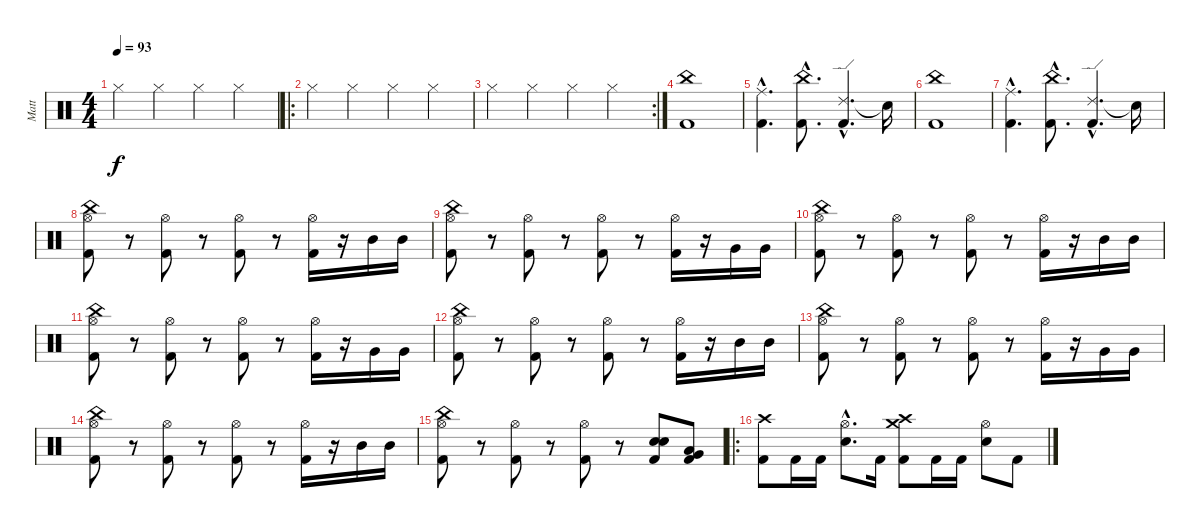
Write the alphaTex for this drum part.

\track ("Matt" "Matt") {instrument percussion}
\staff {score}
\articulation defaults
\ts (4 4)
\tempo 93
\clef neutral
\ks c "Hi-Hat (closed)".4{dy f} "Hi-Hat (closed)".4 "Hi-Hat (closed)".4 "Hi-Hat (closed)".4
|
\ro "Hi-Hat (closed)".4 "Hi-Hat (closed)".4 "Hi-Hat (closed)".4 "Hi-Hat (closed)".4
|
\rc 2 "Hi-Hat (closed)".4 "Hi-Hat (closed)".4 "Hi-Hat (closed)".4 "Hi-Hat (closed)".4
|
("China (hit)" "Kick (hit) 2").1 |
("Ride (middle)"{hac} "Kick (hit) 2"{hac}).4{d} ("China (hit)"{hac} "Kick (hit) 2"{hac}).8{d} ("Ride (edge) 2"{hac} "Kick (hit) 2"{hac}).4{d} "Snare (hit)"{t}.16 |
("China (hit)" "Kick (hit) 2").1 |
("Ride (middle)"{hac} "Kick (hit) 2"{hac}).4{d} ("China (hit)"{hac} "Kick (hit) 2"{hac}).8{d} ("Ride (edge) 2"{hac} "Kick (hit) 2"{hac}).4{d} "Snare (hit)"{t}.16 |
("China (hit)" "Hi-Hat (open)" "Kick (hit) 2").8 r.8 ("Hi-Hat (open)" "Kick (hit) 2").8 r.8 ("Hi-Hat (open)" "Kick (hit) 2").8 r.8 ("Hi-Hat (open)" "Kick (hit) 2").16 r.16 "Mid Tom (hit)".16 "Mid Tom (hit)".16 |
("China (hit)" "Hi-Hat (open)" "Kick (hit) 2").8 r.8 ("Hi-Hat (open)" "Kick (hit) 2").8 r.8 ("Hi-Hat (open)" "Kick (hit) 2").8 r.8 ("Hi-Hat (open)" "Kick (hit) 2").16 r.16 "Very Low Tom (hit)".16 "Very Low Tom (hit)".16 |
("China (hit)" "Hi-Hat (open)" "Kick (hit) 2").8 r.8 ("Hi-Hat (open)" "Kick (hit) 2").8 r.8 ("Hi-Hat (open)" "Kick (hit) 2").8 r.8 ("Hi-Hat (open)" "Kick (hit) 2").16 r.16 "Mid Tom (hit)".16 "Mid Tom (hit)".16 |
("China (hit)" "Hi-Hat (open)" "Kick (hit) 2").8 r.8 ("Hi-Hat (open)" "Kick (hit) 2").8 r.8 ("Hi-Hat (open)" "Kick (hit) 2").8 r.8 ("Hi-Hat (open)" "Kick (hit) 2").16 r.16 "Very Low Tom (hit)".16 "Very Low Tom (hit)".16 |
("China (hit)" "Hi-Hat (open)" "Kick (hit) 2").8 r.8 ("Hi-Hat (open)" "Kick (hit) 2").8 r.8 ("Hi-Hat (open)" "Kick (hit) 2").8 r.8 ("Hi-Hat (open)" "Kick (hit) 2").16 r.16 "Mid Tom (hit)".16 "Mid Tom (hit)".16 |
("China (hit)" "Hi-Hat (open)" "Kick (hit) 2").8 r.8 ("Hi-Hat (open)" "Kick (hit) 2").8 r.8 ("Hi-Hat (open)" "Kick (hit) 2").8 r.8 ("Hi-Hat (open)" "Kick (hit) 2").16 r.16 "Very Low Tom (hit)".16 "Very Low Tom (hit)".16 |
("China (hit)" "Hi-Hat (open)" "Kick (hit) 2").8 r.8 ("Hi-Hat (open)" "Kick (hit) 2").8 r.8 ("Hi-Hat (open)" "Kick (hit) 2").8 r.8 ("Hi-Hat (open)" "Kick (hit) 2").16 r.16 "Mid Tom (hit)".16 "Mid Tom (hit)".16 |
("China (hit)" "Hi-Hat (open)" "Kick (hit) 2").8 r.8 ("Hi-Hat (open)" "Kick (hit) 2").8 r.8 ("Hi-Hat (open)" "Kick (hit) 2").8 r.8 ("Electric Snare (hit)" "Electric Snare (hit)" "Kick (hit) 2").8 ("Low Tom (hit)" "Very Low Tom (hit)" "Kick (hit) 2").8 |
\ro
("Crash high (hit)" "Kick (hit) 2").8 "Kick (hit) 2".16 "Kick (hit) 2".16 ("Hi-Hat (open)"{hac} "Electric Snare (hit)"{hac}).8{d} "Kick (hit) 2".16 ("Crash medium (hit)" "Crash high (hit)" "Kick (hit) 2").8 "Kick (hit) 2".16 "Kick (hit) 2".16 ("Hi-Hat (open)" "Electric Snare (hit)").8 "Kick (hit) 2".8
